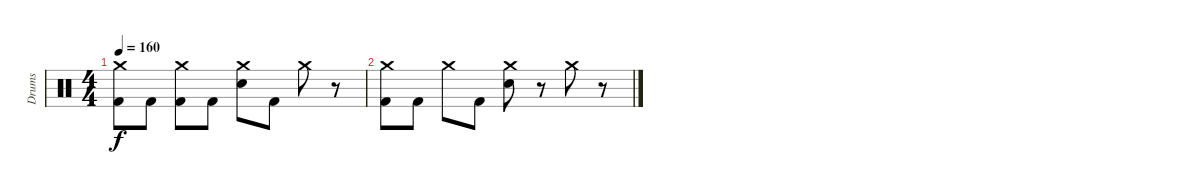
\track ("Drums" "Drums") {instrument percussion}
\staff {score}
\articulation defaults
\ts (4 4)
\tempo 160
\clef neutral
\ks c
("Crash medium (hit)" "Kick (hit) 2").8{dy f} "Kick (hit) 2".8 ("Crash medium (hit)" "Kick (hit) 2").8 "Kick (hit) 2".8 ("Crash medium (hit)" "Snare (hit) 2").8 "Kick (hit) 2".8 "Crash medium (hit)".8 r.8 |
("Crash medium (hit)" "Kick (hit) 2").8 "Kick (hit) 2".8 "Crash medium (hit)".8 "Kick (hit) 2".8 ("Crash medium (hit)" "Snare (hit) 2").8 r.8 "Crash medium (hit)".8 r.8
